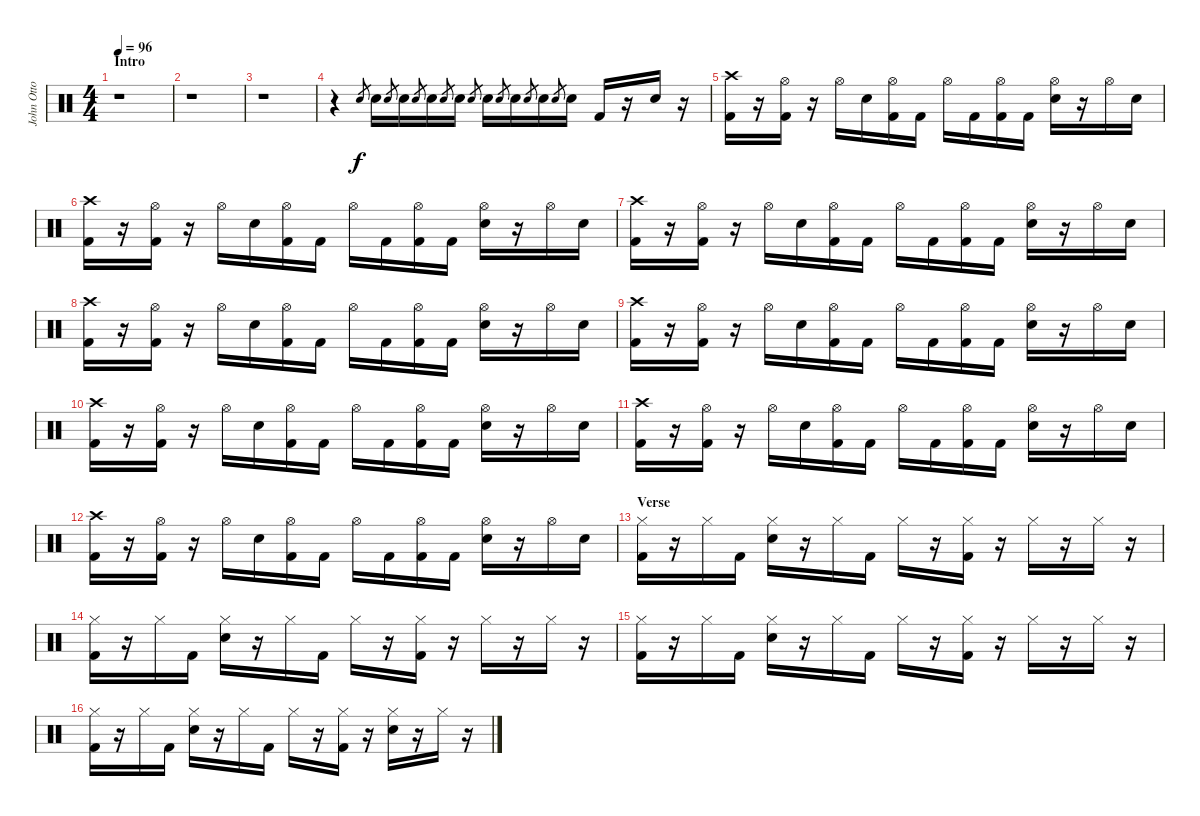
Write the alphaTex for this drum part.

\track ("John Otto" "John Otto") {instrument percussion}
\staff {score}
\articulation defaults
\ts (4 4)
\section ("" "Intro")
\tempo 96
\clef neutral
\ks c
r.1{dy f} |
r.1 |
r.1 |
r.4 "Snare (hit) 2".8{gr} "Snare (hit) 2".16 "Snare (hit) 2".8{gr} "Snare (hit) 2".16 "Snare (hit) 2".8{gr} "Snare (hit) 2".16 "Snare (hit) 2".8{gr} "Snare (hit) 2".16 "Snare (hit) 2".8{gr} "Snare (hit) 2".16 "Snare (hit) 2".8{gr} "Snare (hit) 2".16 "Snare (hit) 2".8{gr} "Snare (hit) 2".16 "Snare (hit) 2".8{gr} "Snare (hit) 2".16 "Kick (hit) 2".16 r.16 "Snare (hit) 2".16 r.16 |
("Crash high (hit)" "Kick (hit) 2").16 r.16 ("Hi-Hat (open)" "Kick (hit) 2").16 r.16 "Hi-Hat (open)".16 "Snare (hit) 2".16 ("Hi-Hat (open)" "Kick (hit) 2").16 "Kick (hit) 2".16 "Hi-Hat (open)".16 "Kick (hit) 2".16 ("Hi-Hat (open)" "Kick (hit) 2").16 "Kick (hit) 2".16 ("Hi-Hat (open)" "Snare (hit) 2").16 r.16 "Hi-Hat (open)".16 "Snare (hit) 2".16 |
("Crash high (hit)" "Kick (hit) 2").16 r.16 ("Hi-Hat (open)" "Kick (hit) 2").16 r.16 "Hi-Hat (open)".16 "Snare (hit) 2".16 ("Hi-Hat (open)" "Kick (hit) 2").16 "Kick (hit) 2".16 "Hi-Hat (open)".16 "Kick (hit) 2".16 ("Hi-Hat (open)" "Kick (hit) 2").16 "Kick (hit) 2".16 ("Hi-Hat (open)" "Snare (hit) 2").16 r.16 "Hi-Hat (open)".16 "Snare (hit) 2".16 |
("Crash high (hit)" "Kick (hit) 2").16 r.16 ("Hi-Hat (open)" "Kick (hit) 2").16 r.16 "Hi-Hat (open)".16 "Snare (hit) 2".16 ("Hi-Hat (open)" "Kick (hit) 2").16 "Kick (hit) 2".16 "Hi-Hat (open)".16 "Kick (hit) 2".16 ("Hi-Hat (open)" "Kick (hit) 2").16 "Kick (hit) 2".16 ("Hi-Hat (open)" "Snare (hit) 2").16 r.16 "Hi-Hat (open)".16 "Snare (hit) 2".16 |
("Crash high (hit)" "Kick (hit) 2").16 r.16 ("Hi-Hat (open)" "Kick (hit) 2").16 r.16 "Hi-Hat (open)".16 "Snare (hit) 2".16 ("Hi-Hat (open)" "Kick (hit) 2").16 "Kick (hit) 2".16 "Hi-Hat (open)".16 "Kick (hit) 2".16 ("Hi-Hat (open)" "Kick (hit) 2").16 "Kick (hit) 2".16 ("Hi-Hat (open)" "Snare (hit) 2").16 r.16 "Hi-Hat (open)".16 "Snare (hit) 2".16 |
("Crash high (hit)" "Kick (hit) 2").16 r.16 ("Hi-Hat (open)" "Kick (hit) 2").16 r.16 "Hi-Hat (open)".16 "Snare (hit) 2".16 ("Hi-Hat (open)" "Kick (hit) 2").16 "Kick (hit) 2".16 "Hi-Hat (open)".16 "Kick (hit) 2".16 ("Hi-Hat (open)" "Kick (hit) 2").16 "Kick (hit) 2".16 ("Hi-Hat (open)" "Snare (hit) 2").16 r.16 "Hi-Hat (open)".16 "Snare (hit) 2".16 |
("Crash high (hit)" "Kick (hit) 2").16 r.16 ("Hi-Hat (open)" "Kick (hit) 2").16 r.16 "Hi-Hat (open)".16 "Snare (hit) 2".16 ("Hi-Hat (open)" "Kick (hit) 2").16 "Kick (hit) 2".16 "Hi-Hat (open)".16 "Kick (hit) 2".16 ("Hi-Hat (open)" "Kick (hit) 2").16 "Kick (hit) 2".16 ("Hi-Hat (open)" "Snare (hit) 2").16 r.16 "Hi-Hat (open)".16 "Snare (hit) 2".16 |
("Crash high (hit)" "Kick (hit) 2").16 r.16 ("Hi-Hat (open)" "Kick (hit) 2").16 r.16 "Hi-Hat (open)".16 "Snare (hit) 2".16 ("Hi-Hat (open)" "Kick (hit) 2").16 "Kick (hit) 2".16 "Hi-Hat (open)".16 "Kick (hit) 2".16 ("Hi-Hat (open)" "Kick (hit) 2").16 "Kick (hit) 2".16 ("Hi-Hat (open)" "Snare (hit) 2").16 r.16 "Hi-Hat (open)".16 "Snare (hit) 2".16 |
("Crash high (hit)" "Kick (hit) 2").16 r.16 ("Hi-Hat (open)" "Kick (hit) 2").16 r.16 "Hi-Hat (open)".16 "Snare (hit) 2".16 ("Hi-Hat (open)" "Kick (hit) 2").16 "Kick (hit) 2".16 "Hi-Hat (open)".16 "Kick (hit) 2".16 ("Hi-Hat (open)" "Kick (hit) 2").16 "Kick (hit) 2".16 ("Hi-Hat (open)" "Snare (hit) 2").16 r.16 "Hi-Hat (open)".16 "Snare (hit) 2".16 |
\section ("" "Verse")
("Hi-Hat (closed)" "Kick (hit) 2").16 r.16 "Hi-Hat (closed)".16 "Kick (hit) 2".16 ("Hi-Hat (closed)" "Snare (hit) 2").16 r.16 "Hi-Hat (closed)".16 "Kick (hit) 2".16 "Hi-Hat (closed)".16 r.16 ("Hi-Hat (closed)" "Kick (hit) 2").16 r.16 "Hi-Hat (closed)".16 r.16 "Hi-Hat (closed)".16 r.16 |
("Hi-Hat (closed)" "Kick (hit) 2").16 r.16 "Hi-Hat (closed)".16 "Kick (hit) 2".16 ("Hi-Hat (closed)" "Snare (hit) 2").16 r.16 "Hi-Hat (closed)".16 "Kick (hit) 2".16 "Hi-Hat (closed)".16 r.16 ("Hi-Hat (closed)" "Kick (hit) 2").16 r.16 "Hi-Hat (closed)".16 r.16 "Hi-Hat (closed)".16 r.16 |
("Hi-Hat (closed)" "Kick (hit) 2").16 r.16 "Hi-Hat (closed)".16 "Kick (hit) 2".16 ("Hi-Hat (closed)" "Snare (hit) 2").16 r.16 "Hi-Hat (closed)".16 "Kick (hit) 2".16 "Hi-Hat (closed)".16 r.16 ("Hi-Hat (closed)" "Kick (hit) 2").16 r.16 "Hi-Hat (closed)".16 r.16 "Hi-Hat (closed)".16 r.16 |
("Hi-Hat (closed)" "Kick (hit) 2").16 r.16 "Hi-Hat (closed)".16 "Kick (hit) 2".16 ("Hi-Hat (closed)" "Snare (hit) 2").16 r.16 "Hi-Hat (closed)".16 "Kick (hit) 2".16 "Hi-Hat (closed)".16 r.16 ("Hi-Hat (closed)" "Kick (hit) 2").16 r.16 ("Hi-Hat (closed)" "Snare (hit) 2").16 r.16 "Hi-Hat (closed)".16 r.16
